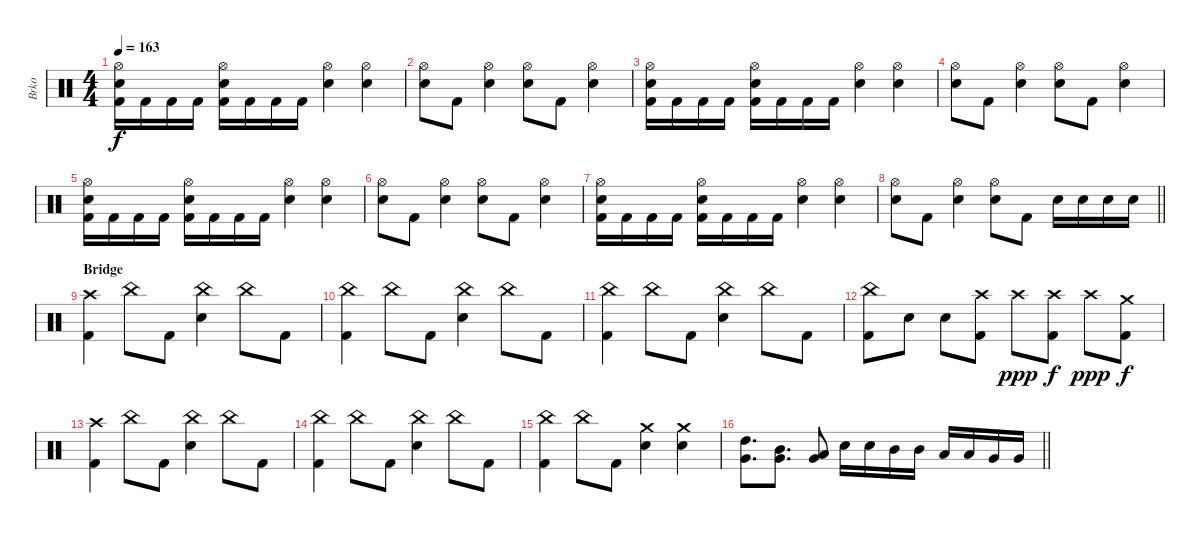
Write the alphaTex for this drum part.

\track ("Brko" "Brko") {instrument percussion}
\staff {score}
\articulation defaults
\ts (4 4)
\tempo 163
\clef neutral
\ks c
("Hi-Hat (open)" "Electric Snare (hit)" "Kick (hit) 2").16{dy f} "Kick (hit) 2".16 "Kick (hit) 2".16 "Kick (hit) 2".16 ("Hi-Hat (open)" "Electric Snare (hit)" "Kick (hit) 2").16 "Kick (hit) 2".16 "Kick (hit) 2".16 "Kick (hit) 2".16 ("Hi-Hat (open)" "Electric Snare (hit)").4 ("Hi-Hat (open)" "Electric Snare (hit)").4 |
("Hi-Hat (open)" "Electric Snare (hit)").8 "Kick (hit) 2".8 ("Hi-Hat (open)" "Electric Snare (hit)").4 ("Hi-Hat (open)" "Electric Snare (hit)").8 "Kick (hit) 2".8 ("Hi-Hat (open)" "Electric Snare (hit)").4 |
("Hi-Hat (open)" "Electric Snare (hit)" "Kick (hit) 2").16 "Kick (hit) 2".16 "Kick (hit) 2".16 "Kick (hit) 2".16 ("Hi-Hat (open)" "Electric Snare (hit)" "Kick (hit) 2").16 "Kick (hit) 2".16 "Kick (hit) 2".16 "Kick (hit) 2".16 ("Hi-Hat (open)" "Electric Snare (hit)").4 ("Hi-Hat (open)" "Electric Snare (hit)").4 |
("Hi-Hat (open)" "Electric Snare (hit)").8 "Kick (hit) 2".8 ("Hi-Hat (open)" "Electric Snare (hit)").4 ("Hi-Hat (open)" "Electric Snare (hit)").8 "Kick (hit) 2".8 ("Hi-Hat (open)" "Electric Snare (hit)").4 |
("Hi-Hat (open)" "Electric Snare (hit)" "Kick (hit) 2").16 "Kick (hit) 2".16 "Kick (hit) 2".16 "Kick (hit) 2".16 ("Hi-Hat (open)" "Electric Snare (hit)" "Kick (hit) 2").16 "Kick (hit) 2".16 "Kick (hit) 2".16 "Kick (hit) 2".16 ("Hi-Hat (open)" "Electric Snare (hit)").4 ("Hi-Hat (open)" "Electric Snare (hit)").4 |
("Hi-Hat (open)" "Electric Snare (hit)").8 "Kick (hit) 2".8 ("Hi-Hat (open)" "Electric Snare (hit)").4 ("Hi-Hat (open)" "Electric Snare (hit)").8 "Kick (hit) 2".8 ("Hi-Hat (open)" "Electric Snare (hit)").4 |
("Hi-Hat (open)" "Electric Snare (hit)" "Kick (hit) 2").16 "Kick (hit) 2".16 "Kick (hit) 2".16 "Kick (hit) 2".16 ("Hi-Hat (open)" "Electric Snare (hit)" "Kick (hit) 2").16 "Kick (hit) 2".16 "Kick (hit) 2".16 "Kick (hit) 2".16 ("Hi-Hat (open)" "Electric Snare (hit)").4 ("Hi-Hat (open)" "Electric Snare (hit)").4 |
\barLineRight lightlight
("Hi-Hat (open)" "Electric Snare (hit)").8 "Kick (hit) 2".8 ("Hi-Hat (open)" "Electric Snare (hit)").4 ("Hi-Hat (open)" "Electric Snare (hit)").8 "Kick (hit) 2".8 "Electric Snare (hit)".16 "Electric Snare (hit)".16 "Electric Snare (hit)".16 "Electric Snare (hit)".16 |
\section ("" "Bridge")
("Crash high (hit)" "Kick (hit) 2").4 "China (hit)".8 "Kick (hit) 2".8 ("China (hit)" "Electric Snare (hit)").4 "China (hit)".8 "Kick (hit) 2".8 |
("China (hit)" "Kick (hit) 2").4 "China (hit)".8 "Kick (hit) 2".8 ("China (hit)" "Electric Snare (hit)").4 "China (hit)".8 "Kick (hit) 2".8 |
("China (hit)" "Kick (hit) 2").4 "China (hit)".8 "Kick (hit) 2".8 ("China (hit)" "Electric Snare (hit)").4 "China (hit)".8 "Kick (hit) 2".8 |
("China (hit)" "Kick (hit) 2").8 "Electric Snare (hit)".8 "Electric Snare (hit)".8 ("Crash high (hit)" "Kick (hit) 2").8 "Crash high (hit)".8{dy ppp} ("Crash high (hit)" "Kick (hit) 2").8{dy f} "Crash high (hit)".8{dy ppp} ("Crash medium (hit)" "Kick (hit) 2").8{dy f} |
("Crash high (hit)" "Kick (hit) 2").4 "China (hit)".8 "Kick (hit) 2".8 ("China (hit)" "Electric Snare (hit)").4 "China (hit)".8 "Kick (hit) 2".8 |
("China (hit)" "Kick (hit) 2").4 "China (hit)".8 "Kick (hit) 2".8 ("China (hit)" "Electric Snare (hit)").4 "China (hit)".8 "Kick (hit) 2".8 |
("China (hit)" "Kick (hit) 2").4 "China (hit)".8 "Kick (hit) 2".8 ("Crash medium (hit)" "Electric Snare (hit)").4 ("Crash medium (hit)" "Electric Snare (hit)").4 |
\barLineRight lightlight
("High Tom (hit)" "Very Low Tom (hit)").8{d} ("Mid Tom (hit)" "Very Low Tom (hit)").8{d} ("Low Tom (hit)" "Very Low Tom (hit)").8 "Electric Snare (hit)".16 "Electric Snare (hit)".16 "Mid Tom (hit)".16 "Mid Tom (hit)".16 "Low Tom (hit)".16 "Low Tom (hit)".16 "Very Low Tom (hit)".16 "Very Low Tom (hit)".16
